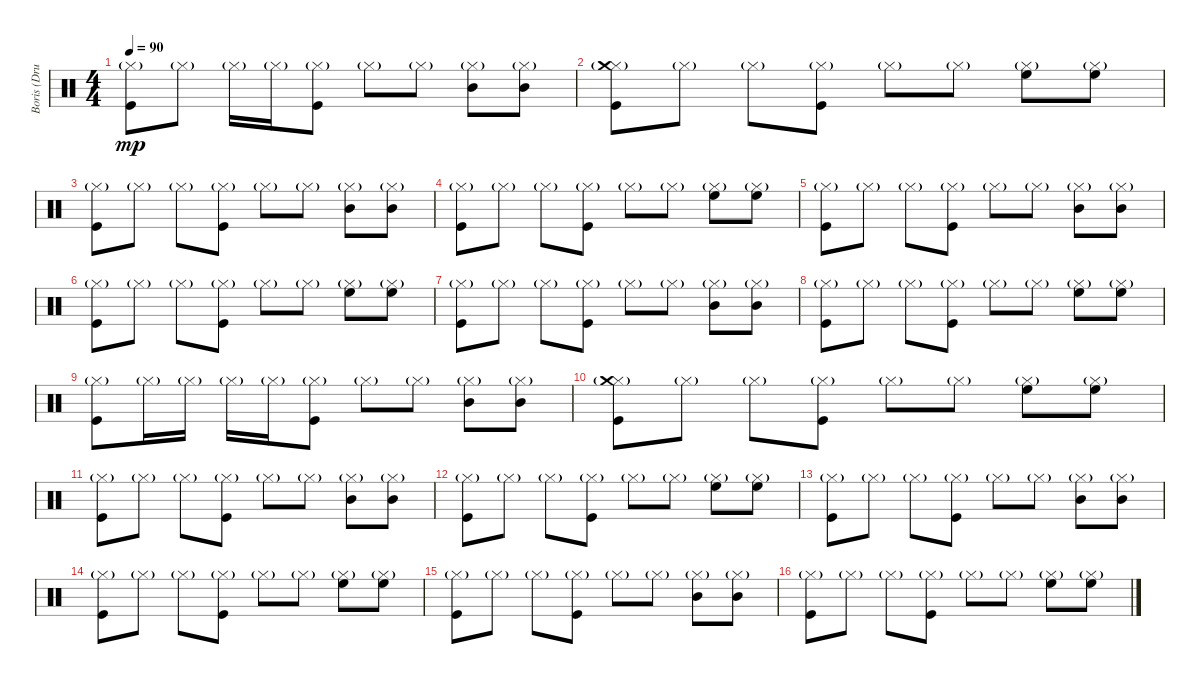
\track ("Boris (Drums)" "Boris (Dru") {instrument percussion}
\staff {score}
\articulation defaults
\ts (4 4)
\tempo 90
\clef neutral
\ks c
("Kick (hit)" "Hi-Hat (closed)"{g}).8{dy mp} "Hi-Hat (closed)"{g}.8 "Hi-Hat (closed)"{g}.16 "Hi-Hat (closed)"{g}.16 ("Kick (hit)" "Hi-Hat (closed)"{g}).8 "Hi-Hat (closed)"{g}.8 "Hi-Hat (closed)"{g}.8 ("Mid Tom (hit)" "Hi-Hat (closed)"{g}).8 ("Mid Tom (hit)" "Hi-Hat (closed)"{g}).8 |
("Kick (hit)" "Hi-Hat (closed)"{g} "Crash medium (hit)").8 "Hi-Hat (closed)"{g}.8 "Hi-Hat (closed)"{g}.8 ("Kick (hit)" "Hi-Hat (closed)"{g}).8 "Hi-Hat (closed)"{g}.8 "Hi-Hat (closed)"{g}.8 ("High Floor Tom (hit)" "Hi-Hat (closed)"{g}).8 ("High Floor Tom (hit)" "Hi-Hat (closed)"{g}).8 |
("Kick (hit)" "Hi-Hat (closed)"{g}).8 "Hi-Hat (closed)"{g}.8 "Hi-Hat (closed)"{g}.8 ("Kick (hit)" "Hi-Hat (closed)"{g}).8 "Hi-Hat (closed)"{g}.8 "Hi-Hat (closed)"{g}.8 ("Mid Tom (hit)" "Hi-Hat (closed)"{g}).8 ("Mid Tom (hit)" "Hi-Hat (closed)"{g}).8 |
("Kick (hit)" "Hi-Hat (closed)"{g}).8 "Hi-Hat (closed)"{g}.8 "Hi-Hat (closed)"{g}.8 ("Kick (hit)" "Hi-Hat (closed)"{g}).8 "Hi-Hat (closed)"{g}.8 "Hi-Hat (closed)"{g}.8 ("High Floor Tom (hit)" "Hi-Hat (closed)"{g}).8 ("High Floor Tom (hit)" "Hi-Hat (closed)"{g}).8 |
("Kick (hit)" "Hi-Hat (closed)"{g}).8 "Hi-Hat (closed)"{g}.8 "Hi-Hat (closed)"{g}.8 ("Kick (hit)" "Hi-Hat (closed)"{g}).8 "Hi-Hat (closed)"{g}.8 "Hi-Hat (closed)"{g}.8 ("Mid Tom (hit)" "Hi-Hat (closed)"{g}).8 ("Mid Tom (hit)" "Hi-Hat (closed)"{g}).8 |
("Kick (hit)" "Hi-Hat (closed)"{g}).8 "Hi-Hat (closed)"{g}.8 "Hi-Hat (closed)"{g}.8 ("Kick (hit)" "Hi-Hat (closed)"{g}).8 "Hi-Hat (closed)"{g}.8 "Hi-Hat (closed)"{g}.8 ("High Floor Tom (hit)" "Hi-Hat (closed)"{g}).8 ("High Floor Tom (hit)" "Hi-Hat (closed)"{g}).8 |
("Kick (hit)" "Hi-Hat (closed)"{g}).8 "Hi-Hat (closed)"{g}.8 "Hi-Hat (closed)"{g}.8 ("Kick (hit)" "Hi-Hat (closed)"{g}).8 "Hi-Hat (closed)"{g}.8 "Hi-Hat (closed)"{g}.8 ("Mid Tom (hit)" "Hi-Hat (closed)"{g}).8 ("Mid Tom (hit)" "Hi-Hat (closed)"{g}).8 |
("Kick (hit)" "Hi-Hat (closed)"{g}).8 "Hi-Hat (closed)"{g}.8 "Hi-Hat (closed)"{g}.8 ("Kick (hit)" "Hi-Hat (closed)"{g}).8 "Hi-Hat (closed)"{g}.8 "Hi-Hat (closed)"{g}.8 ("High Floor Tom (hit)" "Hi-Hat (closed)"{g}).8 ("High Floor Tom (hit)" "Hi-Hat (closed)"{g}).8 |
("Kick (hit)" "Hi-Hat (closed)"{g}).8 "Hi-Hat (closed)"{g}.16 "Hi-Hat (closed)"{g}.16 "Hi-Hat (closed)"{g}.16 "Hi-Hat (closed)"{g}.16 ("Kick (hit)" "Hi-Hat (closed)"{g}).8 "Hi-Hat (closed)"{g}.8 "Hi-Hat (closed)"{g}.8 ("Mid Tom (hit)" "Hi-Hat (closed)"{g}).8 ("Mid Tom (hit)" "Hi-Hat (closed)"{g}).8 |
("Kick (hit)" "Hi-Hat (closed)"{g} "Crash medium (hit)").8 "Hi-Hat (closed)"{g}.8 "Hi-Hat (closed)"{g}.8 ("Kick (hit)" "Hi-Hat (closed)"{g}).8 "Hi-Hat (closed)"{g}.8 "Hi-Hat (closed)"{g}.8 ("High Floor Tom (hit)" "Hi-Hat (closed)"{g}).8 ("High Floor Tom (hit)" "Hi-Hat (closed)"{g}).8 |
("Kick (hit)" "Hi-Hat (closed)"{g}).8 "Hi-Hat (closed)"{g}.8 "Hi-Hat (closed)"{g}.8 ("Kick (hit)" "Hi-Hat (closed)"{g}).8 "Hi-Hat (closed)"{g}.8 "Hi-Hat (closed)"{g}.8 ("Mid Tom (hit)" "Hi-Hat (closed)"{g}).8 ("Mid Tom (hit)" "Hi-Hat (closed)"{g}).8 |
("Kick (hit)" "Hi-Hat (closed)"{g}).8 "Hi-Hat (closed)"{g}.8 "Hi-Hat (closed)"{g}.8 ("Kick (hit)" "Hi-Hat (closed)"{g}).8 "Hi-Hat (closed)"{g}.8 "Hi-Hat (closed)"{g}.8 ("High Floor Tom (hit)" "Hi-Hat (closed)"{g}).8 ("High Floor Tom (hit)" "Hi-Hat (closed)"{g}).8 |
("Kick (hit)" "Hi-Hat (closed)"{g}).8 "Hi-Hat (closed)"{g}.8 "Hi-Hat (closed)"{g}.8 ("Kick (hit)" "Hi-Hat (closed)"{g}).8 "Hi-Hat (closed)"{g}.8 "Hi-Hat (closed)"{g}.8 ("Mid Tom (hit)" "Hi-Hat (closed)"{g}).8 ("Mid Tom (hit)" "Hi-Hat (closed)"{g}).8 |
("Kick (hit)" "Hi-Hat (closed)"{g}).8 "Hi-Hat (closed)"{g}.8 "Hi-Hat (closed)"{g}.8 ("Kick (hit)" "Hi-Hat (closed)"{g}).8 "Hi-Hat (closed)"{g}.8 "Hi-Hat (closed)"{g}.8 ("High Floor Tom (hit)" "Hi-Hat (closed)"{g}).8 ("High Floor Tom (hit)" "Hi-Hat (closed)"{g}).8 |
("Kick (hit)" "Hi-Hat (closed)"{g}).8 "Hi-Hat (closed)"{g}.8 "Hi-Hat (closed)"{g}.8 ("Kick (hit)" "Hi-Hat (closed)"{g}).8 "Hi-Hat (closed)"{g}.8 "Hi-Hat (closed)"{g}.8 ("Mid Tom (hit)" "Hi-Hat (closed)"{g}).8 ("Mid Tom (hit)" "Hi-Hat (closed)"{g}).8 |
("Kick (hit)" "Hi-Hat (closed)"{g}).8 "Hi-Hat (closed)"{g}.8 "Hi-Hat (closed)"{g}.8 ("Kick (hit)" "Hi-Hat (closed)"{g}).8 "Hi-Hat (closed)"{g}.8 "Hi-Hat (closed)"{g}.8 ("High Floor Tom (hit)" "Hi-Hat (closed)"{g}).8 ("High Floor Tom (hit)" "Hi-Hat (closed)"{g}).8
